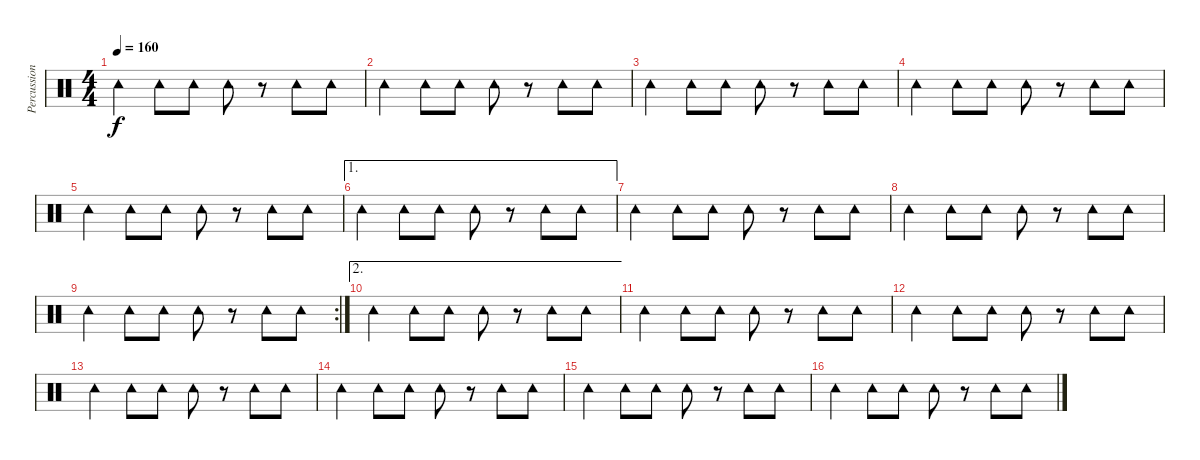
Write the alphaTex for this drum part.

\track ("Percussions" "Percussion") {instrument percussion}
\staff {score}
\articulation defaults
\ts (4 4)
\tempo 160
\clef neutral
\ks c "Tambourine (hit)".4{dy f} "Tambourine (hit)".8 "Tambourine (hit)".8 "Tambourine (hit)".8
r.8 "Tambourine (hit)".8 "Tambourine (hit)".8 |
"Tambourine (hit)".4 "Tambourine (hit)".8 "Tambourine (hit)".8 "Tambourine (hit)".8 r.8 "Tambourine (hit)".8 "Tambourine (hit)".8 |
"Tambourine (hit)".4 "Tambourine (hit)".8 "Tambourine (hit)".8 "Tambourine (hit)".8 r.8 "Tambourine (hit)".8 "Tambourine (hit)".8 |
"Tambourine (hit)".4 "Tambourine (hit)".8 "Tambourine (hit)".8 "Tambourine (hit)".8 r.8 "Tambourine (hit)".8 "Tambourine (hit)".8 |
"Tambourine (hit)".4 "Tambourine (hit)".8 "Tambourine (hit)".8 "Tambourine (hit)".8 r.8 "Tambourine (hit)".8 "Tambourine (hit)".8 |
\ae 1 "Tambourine (hit)".4 "Tambourine (hit)".8 "Tambourine (hit)".8 "Tambourine (hit)".8
r.8 "Tambourine (hit)".8 "Tambourine (hit)".8 |
"Tambourine (hit)".4 "Tambourine (hit)".8 "Tambourine (hit)".8 "Tambourine (hit)".8 r.8 "Tambourine (hit)".8 "Tambourine (hit)".8 |
"Tambourine (hit)".4 "Tambourine (hit)".8 "Tambourine (hit)".8 "Tambourine (hit)".8 r.8 "Tambourine (hit)".8 "Tambourine (hit)".8 |
\rc 2 "Tambourine (hit)".4 "Tambourine (hit)".8 "Tambourine (hit)".8 "Tambourine (hit)".8
r.8 "Tambourine (hit)".8 "Tambourine (hit)".8 |
\ae 2 "Tambourine (hit)".4 "Tambourine (hit)".8 "Tambourine (hit)".8 "Tambourine (hit)".8
r.8 "Tambourine (hit)".8 "Tambourine (hit)".8 |
"Tambourine (hit)".4 "Tambourine (hit)".8 "Tambourine (hit)".8 "Tambourine (hit)".8 r.8 "Tambourine (hit)".8 "Tambourine (hit)".8 |
"Tambourine (hit)".4 "Tambourine (hit)".8 "Tambourine (hit)".8 "Tambourine (hit)".8 r.8 "Tambourine (hit)".8 "Tambourine (hit)".8 |
"Tambourine (hit)".4 "Tambourine (hit)".8 "Tambourine (hit)".8 "Tambourine (hit)".8 r.8 "Tambourine (hit)".8 "Tambourine (hit)".8 |
"Tambourine (hit)".4 "Tambourine (hit)".8 "Tambourine (hit)".8 "Tambourine (hit)".8 r.8 "Tambourine (hit)".8 "Tambourine (hit)".8 |
"Tambourine (hit)".4 "Tambourine (hit)".8 "Tambourine (hit)".8 "Tambourine (hit)".8 r.8 "Tambourine (hit)".8 "Tambourine (hit)".8 |
"Tambourine (hit)".4 "Tambourine (hit)".8 "Tambourine (hit)".8 "Tambourine (hit)".8 r.8 "Tambourine (hit)".8 "Tambourine (hit)".8
